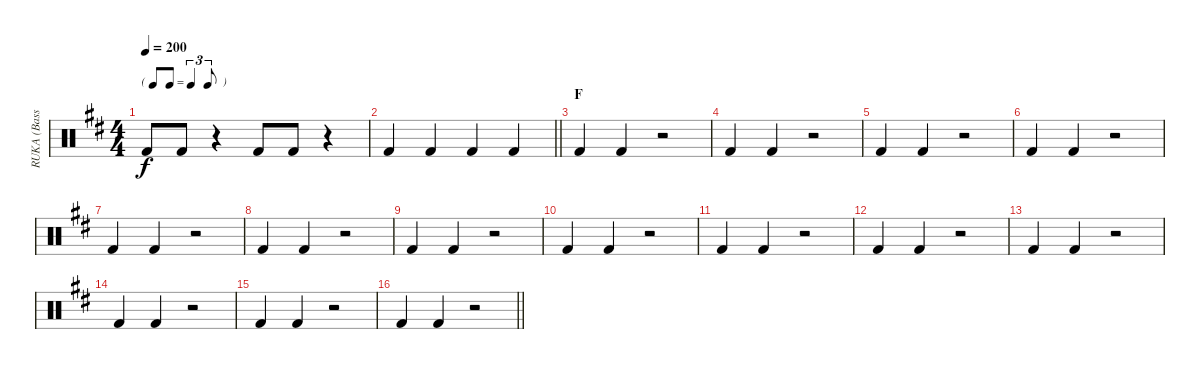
\track ("RUKA (Bass)" "RUKA (Bass") {instrument percussion}
\staff {score}
\articulation defaults
\ts (4 4)
\tf triplet8th
\tempo 200
\clef neutral
\ks d "Kick (hit) 2".8{dy f} "Kick (hit) 2".8
r.4 "Kick (hit) 2".8 "Kick (hit) 2".8 r.4 |
\barLineRight lightlight "Kick (hit) 2".4 "Kick (hit) 2".4 "Kick (hit) 2".4 "Kick (hit) 2".4
|
\section ("" "F")
"Kick (hit) 2".4 "Kick (hit) 2".4 r.2 |
"Kick (hit) 2".4 "Kick (hit) 2".4 r.2 |
"Kick (hit) 2".4 "Kick (hit) 2".4 r.2 |
"Kick (hit) 2".4 "Kick (hit) 2".4 r.2 |
"Kick (hit) 2".4 "Kick (hit) 2".4 r.2 |
"Kick (hit) 2".4 "Kick (hit) 2".4 r.2 |
"Kick (hit) 2".4 "Kick (hit) 2".4 r.2 |
"Kick (hit) 2".4 "Kick (hit) 2".4 r.2 |
"Kick (hit) 2".4 "Kick (hit) 2".4 r.2 |
"Kick (hit) 2".4 "Kick (hit) 2".4 r.2 |
"Kick (hit) 2".4 "Kick (hit) 2".4 r.2 |
"Kick (hit) 2".4 "Kick (hit) 2".4 r.2 |
"Kick (hit) 2".4 "Kick (hit) 2".4 r.2 |
\barLineRight lightlight "Kick (hit) 2".4 "Kick (hit) 2".4
r.2
